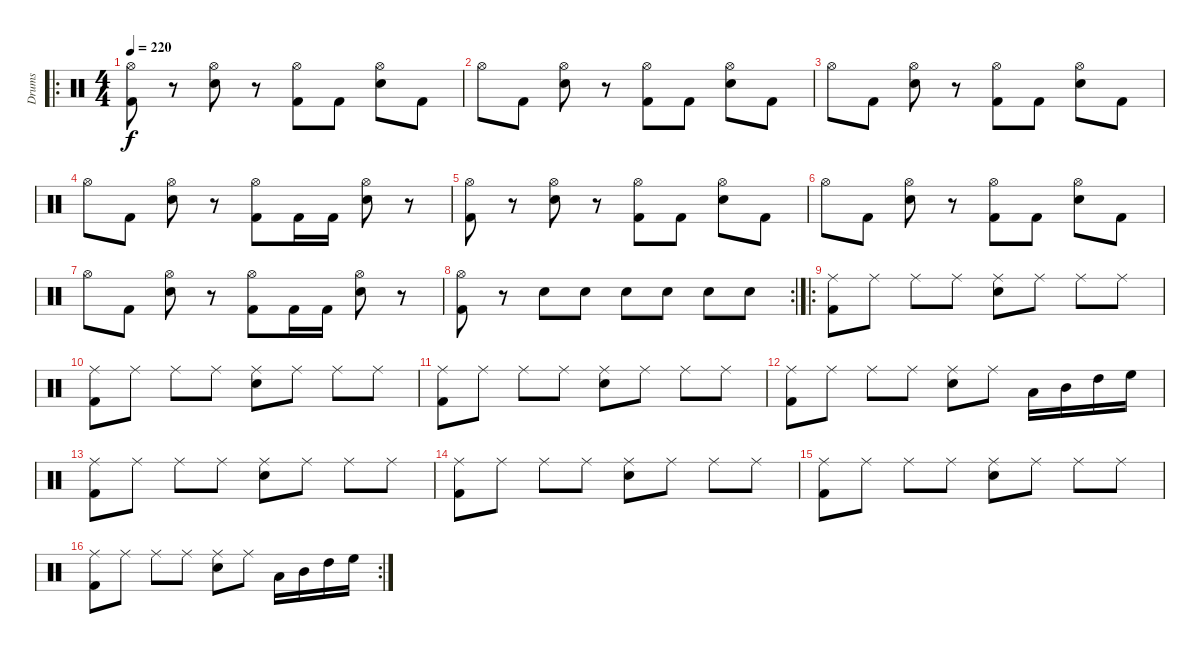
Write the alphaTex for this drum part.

\track ("Drums" "Drums") {instrument percussion}
\staff {score}
\articulation defaults
\ro
\ts (4 4)
\tempo 220
\clef neutral
\ks c
("Kick (hit) 2" "Hi-Hat (open)").8{dy f} r.8 ("Snare (hit) 2" "Hi-Hat (open)").8 r.8 ("Kick (hit) 2" "Hi-Hat (open)").8 "Kick (hit) 2".8 ("Snare (hit) 2" "Hi-Hat (open)").8 "Kick (hit) 2".8 |
"Hi-Hat (open)".8 "Kick (hit) 2".8 ("Snare (hit) 2" "Hi-Hat (open)").8 r.8 ("Kick (hit) 2" "Hi-Hat (open)").8 "Kick (hit) 2".8 ("Snare (hit) 2" "Hi-Hat (open)").8 "Kick (hit) 2".8 |
"Hi-Hat (open)".8 "Kick (hit) 2".8 ("Snare (hit) 2" "Hi-Hat (open)").8 r.8 ("Kick (hit) 2" "Hi-Hat (open)").8 "Kick (hit) 2".8 ("Snare (hit) 2" "Hi-Hat (open)").8 "Kick (hit) 2".8 |
"Hi-Hat (open)".8 "Kick (hit) 2".8 ("Snare (hit) 2" "Hi-Hat (open)").8 r.8 ("Kick (hit) 2" "Hi-Hat (open)").8 "Kick (hit) 2".16 "Kick (hit) 2".16 ("Snare (hit) 2" "Hi-Hat (open)").8 r.8 |
("Kick (hit) 2" "Hi-Hat (open)").8 r.8 ("Snare (hit) 2" "Hi-Hat (open)").8 r.8 ("Kick (hit) 2" "Hi-Hat (open)").8 "Kick (hit) 2".8 ("Snare (hit) 2" "Hi-Hat (open)").8 "Kick (hit) 2".8 |
"Hi-Hat (open)".8 "Kick (hit) 2".8 ("Snare (hit) 2" "Hi-Hat (open)").8 r.8 ("Kick (hit) 2" "Hi-Hat (open)").8 "Kick (hit) 2".8 ("Snare (hit) 2" "Hi-Hat (open)").8 "Kick (hit) 2".8 |
"Hi-Hat (open)".8 "Kick (hit) 2".8 ("Snare (hit) 2" "Hi-Hat (open)").8 r.8 ("Kick (hit) 2" "Hi-Hat (open)").8 "Kick (hit) 2".16 "Kick (hit) 2".16 ("Snare (hit) 2" "Hi-Hat (open)").8 r.8 |
\rc 2
("Kick (hit) 2" "Hi-Hat (open)").8 r.8 "Snare (hit) 2".8 "Snare (hit) 2".8 "Snare (hit) 2".8 "Snare (hit) 2".8 "Snare (hit) 2".8 "Snare (hit) 2".8 |
\ro
("Kick (hit) 2" "Ride (middle)").8 "Ride (middle)".8 "Ride (middle)".8 "Ride (middle)".8 ("Snare (hit) 2" "Ride (middle)").8 "Ride (middle)".8 "Ride (middle)".8 "Ride (middle)".8 |
("Kick (hit) 2" "Ride (middle)").8 "Ride (middle)".8 "Ride (middle)".8 "Ride (middle)".8 ("Snare (hit) 2" "Ride (middle)").8 "Ride (middle)".8 "Ride (middle)".8 "Ride (middle)".8 |
("Kick (hit) 2" "Ride (middle)").8 "Ride (middle)".8 "Ride (middle)".8 "Ride (middle)".8 ("Snare (hit) 2" "Ride (middle)").8 "Ride (middle)".8 "Ride (middle)".8 "Ride (middle)".8 |
("Kick (hit) 2" "Ride (middle)").8 "Ride (middle)".8 "Ride (middle)".8 "Ride (middle)".8 ("Snare (hit) 2" "Ride (middle)").8 "Ride (middle)".8 "Low Tom (hit)".16 "Mid Tom (hit)".16 "High Tom (hit)".16 "High Floor Tom (hit)".16 |
("Kick (hit) 2" "Ride (middle)").8 "Ride (middle)".8 "Ride (middle)".8 "Ride (middle)".8 ("Snare (hit) 2" "Ride (middle)").8 "Ride (middle)".8 "Ride (middle)".8 "Ride (middle)".8 |
("Kick (hit) 2" "Ride (middle)").8 "Ride (middle)".8 "Ride (middle)".8 "Ride (middle)".8 ("Snare (hit) 2" "Ride (middle)").8 "Ride (middle)".8 "Ride (middle)".8 "Ride (middle)".8 |
("Kick (hit) 2" "Ride (middle)").8 "Ride (middle)".8 "Ride (middle)".8 "Ride (middle)".8 ("Snare (hit) 2" "Ride (middle)").8 "Ride (middle)".8 "Ride (middle)".8 "Ride (middle)".8 |
\rc 2
("Kick (hit) 2" "Ride (middle)").8 "Ride (middle)".8 "Ride (middle)".8 "Ride (middle)".8 ("Snare (hit) 2" "Ride (middle)").8 "Ride (middle)".8 "Low Tom (hit)".16 "Mid Tom (hit)".16 "High Tom (hit)".16 "High Floor Tom (hit)".16
